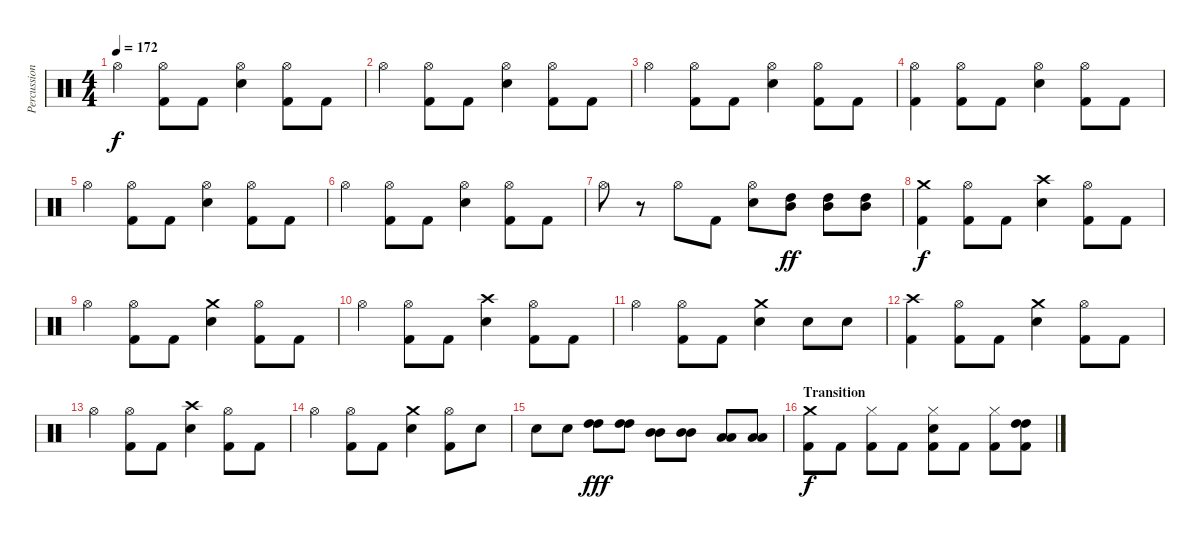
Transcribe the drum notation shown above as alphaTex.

\track ("Percussions" "Percussion") {instrument percussion}
\staff {score}
\articulation defaults
\ts (4 4)
\tempo 172
\clef neutral
\ks c "Hi-Hat (open)".4{dy f}
("Hi-Hat (open)" "Kick (hit) 2").8 "Kick (hit) 2".8 ("Hi-Hat (open)" "Snare (hit) 2").4 ("Hi-Hat (open)" "Kick (hit) 2").8 "Kick (hit) 2".8 |
"Hi-Hat (open)".4 ("Hi-Hat (open)" "Kick (hit) 2").8 "Kick (hit) 2".8 ("Hi-Hat (open)" "Snare (hit) 2").4 ("Hi-Hat (open)" "Kick (hit) 2").8 "Kick (hit) 2".8 |
"Hi-Hat (open)".4 ("Hi-Hat (open)" "Kick (hit) 2").8 "Kick (hit) 2".8 ("Hi-Hat (open)" "Snare (hit) 2").4 ("Hi-Hat (open)" "Kick (hit) 2").8 "Kick (hit) 2".8 |
("Hi-Hat (open)" "Kick (hit) 2").4 ("Hi-Hat (open)" "Kick (hit) 2").8 "Kick (hit) 2".8 ("Hi-Hat (open)" "Snare (hit) 2").4 ("Hi-Hat (open)" "Kick (hit) 2").8 "Kick (hit) 2".8 |
"Hi-Hat (open)".4 ("Hi-Hat (open)" "Kick (hit) 2").8 "Kick (hit) 2".8 ("Hi-Hat (open)" "Snare (hit) 2").4 ("Hi-Hat (open)" "Kick (hit) 2").8 "Kick (hit) 2".8 |
"Hi-Hat (open)".4 ("Hi-Hat (open)" "Kick (hit) 2").8 "Kick (hit) 2".8 ("Hi-Hat (open)" "Snare (hit) 2").4 ("Hi-Hat (open)" "Kick (hit) 2").8 "Kick (hit) 2".8 |
"Hi-Hat (open)".8 r.8 "Hi-Hat (open)".8 "Kick (hit) 2".8 ("Hi-Hat (open)" "Snare (hit) 2").8 ("High Tom (hit)" "Mid Tom (hit)").8{dy ff} ("High Tom (hit)" "Mid Tom (hit)").8 ("High Tom (hit)" "Mid Tom (hit)").8 |
("Crash medium (hit)" "Kick (hit) 2").4{dy f} ("Hi-Hat (open)" "Kick (hit) 2").8 "Kick (hit) 2".8 ("Crash high (hit)" "Snare (hit) 2").4 ("Hi-Hat (open)" "Kick (hit) 2").8 "Kick (hit) 2".8 |
"Hi-Hat (open)".4 ("Hi-Hat (open)" "Kick (hit) 2").8 "Kick (hit) 2".8 ("Crash medium (hit)" "Snare (hit) 2").4 ("Hi-Hat (open)" "Kick (hit) 2").8 "Kick (hit) 2".8 |
"Hi-Hat (open)".4 ("Hi-Hat (open)" "Kick (hit) 2").8 "Kick (hit) 2".8 ("Crash high (hit)" "Snare (hit) 2").4 ("Hi-Hat (open)" "Kick (hit) 2").8 "Kick (hit) 2".8 |
"Hi-Hat (open)".4 ("Hi-Hat (open)" "Kick (hit) 2").8 "Kick (hit) 2".8 ("Crash medium (hit)" "Snare (hit) 2").4 "Snare (hit) 2".8 "Snare (hit) 2".8 |
("Crash high (hit)" "Kick (hit) 2").4 ("Hi-Hat (open)" "Kick (hit) 2").8 "Kick (hit) 2".8 ("Crash medium (hit)" "Snare (hit) 2").4 ("Hi-Hat (open)" "Kick (hit) 2").8 "Kick (hit) 2".8 |
"Hi-Hat (open)".4 ("Hi-Hat (open)" "Kick (hit) 2").8 "Kick (hit) 2".8 ("Crash high (hit)" "Snare (hit) 2").4 ("Hi-Hat (open)" "Kick (hit) 2").8 "Kick (hit) 2".8 |
"Hi-Hat (open)".4 ("Hi-Hat (open)" "Kick (hit) 2").8 "Kick (hit) 2".8 ("Crash medium (hit)" "Snare (hit) 2").4 ("Hi-Hat (open)" "Kick (hit) 2").8 "Snare (hit) 2".8 |
"Snare (hit) 2".8 "Snare (hit) 2".8 ("High Tom (hit)" "High Tom (hit)").8{dy fff} ("High Tom (hit)" "High Tom (hit)").8 ("Mid Tom (hit)" "Mid Tom (hit)").8 ("Mid Tom (hit)" "Mid Tom (hit)").8 ("Low Tom (hit)" "Low Tom (hit)").8 ("Low Tom (hit)" "Low Tom (hit)").8 |
\section ("" "Transition")
("Crash medium (hit)" "Kick (hit) 2").8{dy f} "Kick (hit) 2".8 ("Hi-Hat (closed)" "Kick (hit) 2").8 "Kick (hit) 2".8 ("Hi-Hat (closed)" "Snare (hit) 2" "Kick (hit) 2").8 "Kick (hit) 2".8 ("Hi-Hat (closed)" "Kick (hit) 2").8 ("High Tom (hit)" "High Tom (hit)" "Kick (hit) 2").8
